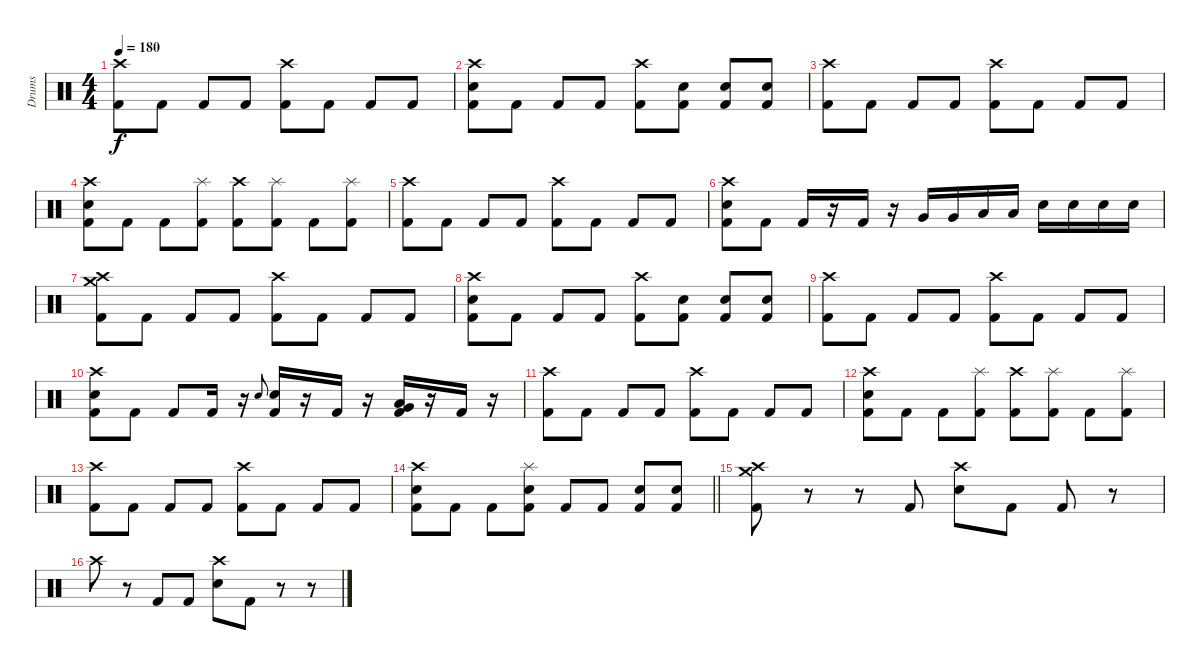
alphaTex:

\track ("Drums" "Drums") {instrument percussion}
\staff {score}
\articulation defaults
\ts (4 4)
\tempo 180
\clef neutral
\ks c
("Crash high (hit)" "Kick (hit) 2").8{dy f} "Kick (hit) 2".8 "Kick (hit) 2".8 "Kick (hit) 2".8 ("Crash high (hit)" "Kick (hit) 2").8 "Kick (hit) 2".8 "Kick (hit) 2".8 "Kick (hit) 2".8 |
("Crash high (hit)" "Electric Snare (hit)" "Kick (hit) 2").8 "Kick (hit) 2".8 "Kick (hit) 2".8 "Kick (hit) 2".8 ("Crash high (hit)" "Kick (hit) 2").8 ("Electric Snare (hit)" "Kick (hit) 2").8 ("Electric Snare (hit)" "Kick (hit) 2").8 ("Electric Snare (hit)" "Kick (hit) 2").8 |
("Crash high (hit)" "Kick (hit) 2").8 "Kick (hit) 2".8 "Kick (hit) 2".8 "Kick (hit) 2".8 ("Crash high (hit)" "Kick (hit) 2").8 "Kick (hit) 2".8 "Kick (hit) 2".8 "Kick (hit) 2".8 |
("Crash high (hit)" "Electric Snare (hit)" "Kick (hit) 2").8 "Kick (hit) 2".8 "Kick (hit) 2".8 ("Splash (hit)" "Kick (hit) 2").8 ("Crash high (hit)" "Kick (hit) 2").8 ("Splash (hit)" "Kick (hit) 2").8 "Kick (hit) 2".8 ("Splash (hit)" "Kick (hit) 2").8 |
("Crash high (hit)" "Kick (hit) 2").8 "Kick (hit) 2".8 "Kick (hit) 2".8 "Kick (hit) 2".8 ("Crash high (hit)" "Kick (hit) 2").8 "Kick (hit) 2".8 "Kick (hit) 2".8 "Kick (hit) 2".8 |
("Crash high (hit)" "Electric Snare (hit)" "Kick (hit) 2").8 "Kick (hit) 2".8 "Kick (hit) 2".16 r.16 "Kick (hit) 2".16 r.16 "Very Low Tom (hit)".16 "Very Low Tom (hit)".16 "Low Floor Tom (hit)".16 "Low Floor Tom (hit)".16 "Electric Snare (hit)".16 "Electric Snare (hit)".16 "Electric Snare (hit)".16 "Electric Snare (hit)".16 |
("Crash high (hit)" "Crash medium (hit)" "Kick (hit) 2").8 "Kick (hit) 2".8 "Kick (hit) 2".8 "Kick (hit) 2".8 ("Crash high (hit)" "Kick (hit) 2").8 "Kick (hit) 2".8 "Kick (hit) 2".8 "Kick (hit) 2".8 |
("Crash high (hit)" "Electric Snare (hit)" "Kick (hit) 2").8 "Kick (hit) 2".8 "Kick (hit) 2".8 "Kick (hit) 2".8 ("Crash high (hit)" "Kick (hit) 2").8 ("Electric Snare (hit)" "Kick (hit) 2").8 ("Electric Snare (hit)" "Kick (hit) 2").8 ("Electric Snare (hit)" "Kick (hit) 2").8 |
("Crash high (hit)" "Kick (hit) 2").8 "Kick (hit) 2".8 "Kick (hit) 2".8 "Kick (hit) 2".8 ("Crash high (hit)" "Kick (hit) 2").8 "Kick (hit) 2".8 "Kick (hit) 2".8 "Kick (hit) 2".8 |
("Crash high (hit)" "Electric Snare (hit)" "Kick (hit) 2").8 "Kick (hit) 2".8 "Kick (hit) 2".8 "Kick (hit) 2".16 r.16 "Electric Snare (hit)".8{gr onbeat} ("Kick (hit) 2" "Electric Snare (hit)").16 r.16 "Kick (hit) 2".16 r.16 ("Very Low Tom (hit)" "Low Floor Tom (hit)" "Kick (hit) 2").16 r.16 "Kick (hit) 2".16 r.16 |
("Crash high (hit)" "Kick (hit) 2").8 "Kick (hit) 2".8 "Kick (hit) 2".8 "Kick (hit) 2".8 ("Crash high (hit)" "Kick (hit) 2").8 "Kick (hit) 2".8 "Kick (hit) 2".8 "Kick (hit) 2".8 |
("Crash high (hit)" "Electric Snare (hit)" "Kick (hit) 2").8 "Kick (hit) 2".8 "Kick (hit) 2".8 ("Splash (hit)" "Kick (hit) 2").8 ("Crash high (hit)" "Kick (hit) 2").8 ("Splash (hit)" "Kick (hit) 2").8 "Kick (hit) 2".8 ("Splash (hit)" "Kick (hit) 2").8 |
("Crash high (hit)" "Kick (hit) 2").8 "Kick (hit) 2".8 "Kick (hit) 2".8 "Kick (hit) 2".8 ("Crash high (hit)" "Kick (hit) 2").8 "Kick (hit) 2".8 "Kick (hit) 2".8 "Kick (hit) 2".8 |
\barLineRight lightlight
("Crash high (hit)" "Electric Snare (hit)" "Kick (hit) 2").8 "Kick (hit) 2".8 "Kick (hit) 2".8 ("Splash (hit)" "Electric Snare (hit)" "Kick (hit) 2").8 "Kick (hit) 2".8 "Kick (hit) 2".8 ("Electric Snare (hit)" "Kick (hit) 2").8 ("Electric Snare (hit)" "Kick (hit) 2").8 |
("Crash high (hit)" "Crash medium (hit)" "Kick (hit) 2").8 r.8 r.8 "Kick (hit) 2".8 ("Crash high (hit)" "Electric Snare (hit)").8 "Kick (hit) 2".8 "Kick (hit) 2".8 r.8 |
"Crash high (hit)".8 r.8 "Kick (hit) 2".8 "Kick (hit) 2".8 ("Crash high (hit)" "Electric Snare (hit)").8 "Kick (hit) 2".8 r.8 r.8
